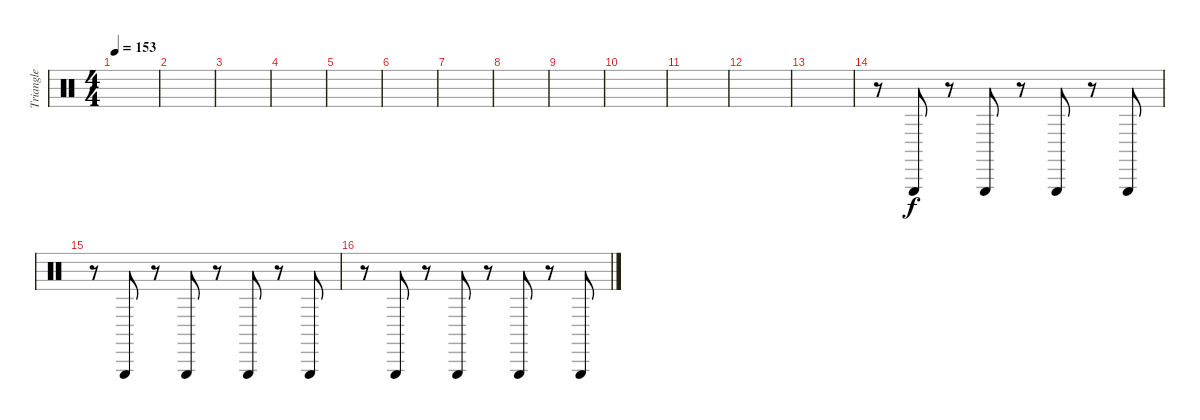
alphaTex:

\track ("Triangle" "Triangle") {instrument percussion}
\staff {score}
\articulation defaults
\ts (4 4)
\tempo 153
\clef neutral
\ks c
|
|
|
|
|
|
|
|
|
|
|
|
|
r.8 "Triangle (hit)".8 r.8 "Triangle (hit)".8 r.8 "Triangle (hit)".8 r.8 "Triangle (hit)".8 |
r.8 "Triangle (hit)".8 r.8 "Triangle (hit)".8 r.8 "Triangle (hit)".8 r.8 "Triangle (hit)".8 |
r.8 "Triangle (hit)".8 r.8 "Triangle (hit)".8 r.8 "Triangle (hit)".8 r.8 "Triangle (hit)".8
